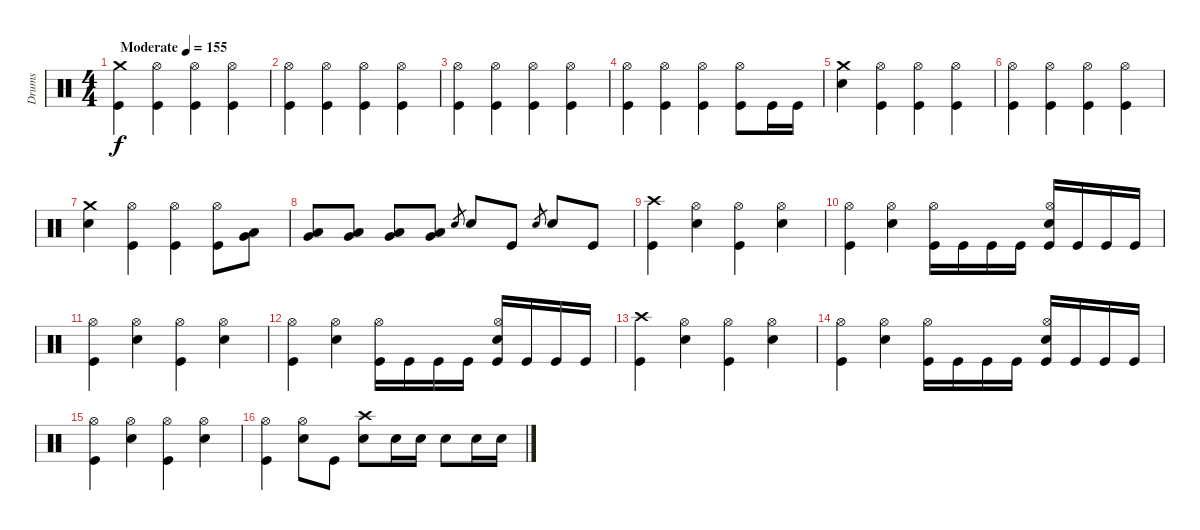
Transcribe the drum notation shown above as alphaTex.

\track ("Drums" "Drums") {instrument percussion}
\staff {score}
\articulation defaults
\ts (4 4)
\tempo (155 "Moderate")
\clef neutral
\ks c
("Crash medium (hit)" "Kick (hit)").4{dy f} ("Hi-Hat (open)" "Kick (hit)").4 ("Hi-Hat (open)" "Kick (hit)").4 ("Hi-Hat (open)" "Kick (hit)").4 |
("Hi-Hat (open)" "Kick (hit)").4 ("Hi-Hat (open)" "Kick (hit)").4 ("Hi-Hat (open)" "Kick (hit)").4 ("Hi-Hat (open)" "Kick (hit)").4 |
("Hi-Hat (open)" "Kick (hit)").4 ("Hi-Hat (open)" "Kick (hit)").4 ("Hi-Hat (open)" "Kick (hit)").4 ("Hi-Hat (open)" "Kick (hit)").4 |
("Hi-Hat (open)" "Kick (hit)").4 ("Hi-Hat (open)" "Kick (hit)").4 ("Hi-Hat (open)" "Kick (hit)").4 ("Hi-Hat (open)" "Kick (hit)").8 "Kick (hit)".16 "Kick (hit)".16 |
("Crash medium (hit)" "Snare (hit) 2").4 ("Hi-Hat (open)" "Kick (hit)").4 ("Hi-Hat (open)" "Kick (hit)").4 ("Hi-Hat (open)" "Kick (hit)").4 |
("Hi-Hat (open)" "Kick (hit)").4 ("Hi-Hat (open)" "Kick (hit)").4 ("Hi-Hat (open)" "Kick (hit)").4 ("Hi-Hat (open)" "Kick (hit)").4 |
("Crash medium (hit)" "Snare (hit) 2").4 ("Hi-Hat (open)" "Kick (hit)").4 ("Hi-Hat (open)" "Kick (hit)").4 ("Hi-Hat (open)" "Kick (hit)").8 ("Low Tom (hit)" "Very Low Tom (hit)").8 |
("Very Low Tom (hit)" "Low Tom (hit)").8 ("Very Low Tom (hit)" "Low Tom (hit)").8 ("Very Low Tom (hit)" "Low Tom (hit)").8 ("Very Low Tom (hit)" "Low Tom (hit)").8 "Snare (hit) 2".8{gr} "Snare (hit) 2".8 "Kick (hit)".8 "Snare (hit) 2".8{gr} "Snare (hit) 2".8 "Kick (hit)".8 |
("Crash high (hit)" "Kick (hit)").4 ("Hi-Hat (open)" "Snare (hit) 2").4 ("Hi-Hat (open)" "Kick (hit)").4 ("Hi-Hat (open)" "Snare (hit) 2").4 |
("Hi-Hat (open)" "Kick (hit)").4 ("Hi-Hat (open)" "Snare (hit) 2").4 ("Hi-Hat (open)" "Kick (hit)").16 "Kick (hit)".16 "Kick (hit)".16 "Kick (hit)".16 ("Hi-Hat (open)" "Snare (hit) 2" "Kick (hit)").16 "Kick (hit)".16 "Kick (hit)".16 "Kick (hit)".16 |
("Hi-Hat (open)" "Kick (hit)").4 ("Hi-Hat (open)" "Snare (hit) 2").4 ("Hi-Hat (open)" "Kick (hit)").4 ("Hi-Hat (open)" "Snare (hit) 2").4 |
("Hi-Hat (open)" "Kick (hit)").4 ("Hi-Hat (open)" "Snare (hit) 2").4 ("Hi-Hat (open)" "Kick (hit)").16 "Kick (hit)".16 "Kick (hit)".16 "Kick (hit)".16 ("Hi-Hat (open)" "Snare (hit) 2" "Kick (hit)").16 "Kick (hit)".16 "Kick (hit)".16 "Kick (hit)".16 |
("Crash high (hit)" "Kick (hit)").4 ("Hi-Hat (open)" "Snare (hit) 2").4 ("Hi-Hat (open)" "Kick (hit)").4 ("Hi-Hat (open)" "Snare (hit) 2").4 |
("Hi-Hat (open)" "Kick (hit)").4 ("Hi-Hat (open)" "Snare (hit) 2").4 ("Hi-Hat (open)" "Kick (hit)").16 "Kick (hit)".16 "Kick (hit)".16 "Kick (hit)".16 ("Hi-Hat (open)" "Snare (hit) 2" "Kick (hit)").16 "Kick (hit)".16 "Kick (hit)".16 "Kick (hit)".16 |
("Hi-Hat (open)" "Kick (hit)").4 ("Hi-Hat (open)" "Snare (hit) 2").4 ("Hi-Hat (open)" "Kick (hit)").4 ("Hi-Hat (open)" "Snare (hit) 2").4 |
("Hi-Hat (open)" "Kick (hit)").4 ("Hi-Hat (open)" "Snare (hit) 2").8 "Kick (hit)".8 ("Crash high (hit)" "Snare (hit) 2").8 "Snare (hit) 2".16 "Snare (hit) 2".16 "Snare (hit) 2".8 "Snare (hit) 2".16 "Snare (hit) 2".16
